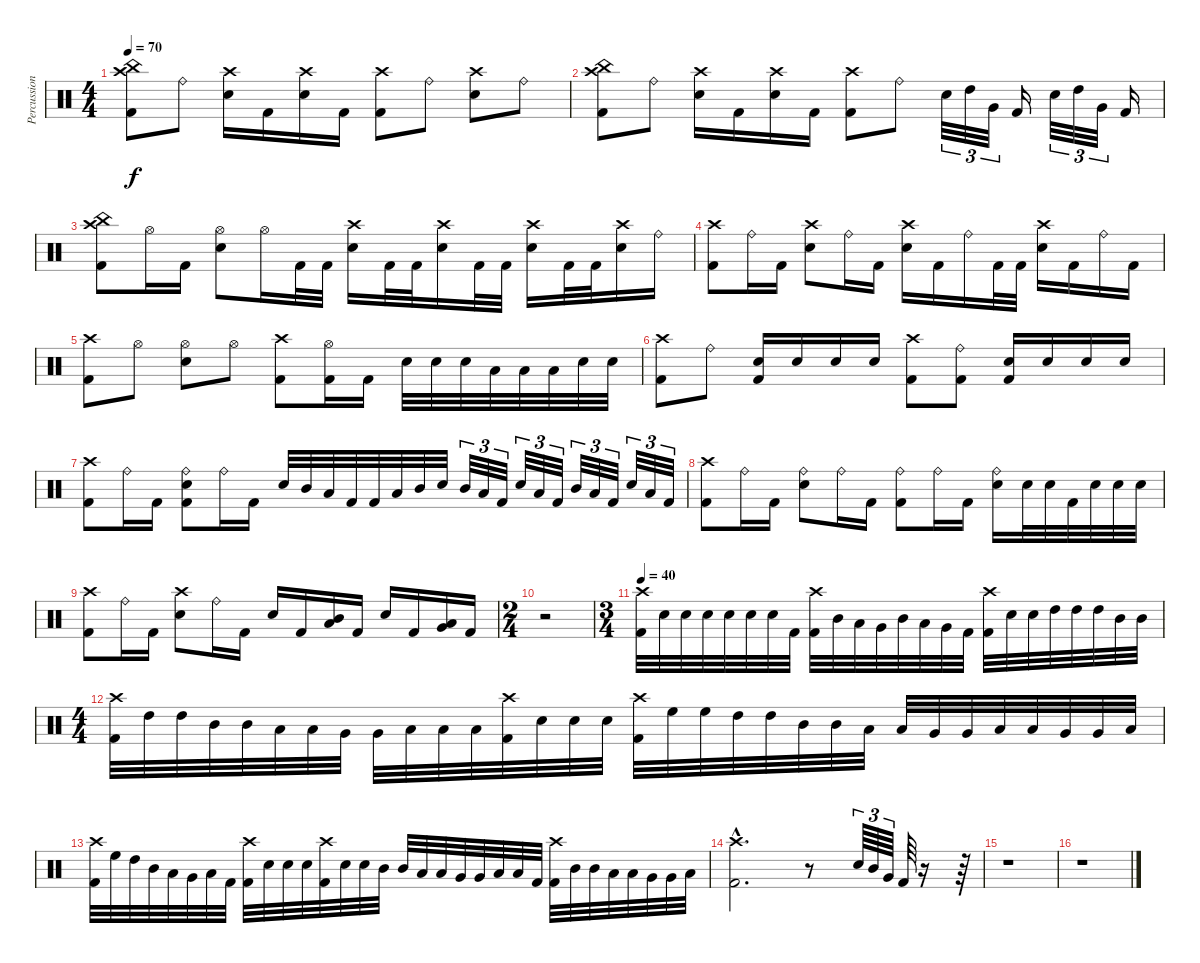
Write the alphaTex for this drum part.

\track ("Percussion" "Percussion") {instrument percussion}
\staff {score}
\articulation defaults
\ts (4 4)
\tempo 70
\clef neutral
\ks c
("Crash high (hit)" "China (hit)" "Kick (hit) 2").8{dy f} "Ride (bell)".8 ("Crash high (hit)" "Snare (hit) 2").16 "Kick (hit) 2".16 ("Crash high (hit)" "Snare (hit) 2").16 "Kick (hit) 2".16 ("Crash high (hit)" "Kick (hit) 2").8 "Ride (bell)".8 ("Crash high (hit)" "Snare (hit) 2").8 "Ride (bell)".8 |
("Crash high (hit)" "China (hit)" "Kick (hit) 2").8 "Ride (bell)".8 ("Crash high (hit)" "Snare (hit) 2").16 "Kick (hit) 2".16 ("Crash high (hit)" "Snare (hit) 2").16 "Kick (hit) 2".16 ("Crash high (hit)" "Kick (hit) 2").8 "Ride (bell)".8 "Snare (hit) 2".32{tu (3 2)} "High Tom (hit)".32{tu (3 2)} "Very Low Tom (hit)".32{tu (3 2)} "Kick (hit) 2".16 "Snare (hit) 2".32{tu (3 2)} "High Tom (hit)".32{tu (3 2)} "Very Low Tom (hit)".32{tu (3 2)} "Kick (hit) 2".16 |
("Crash high (hit)" "China (hit)" "Kick (hit) 2").8 "Hi-Hat (open)".16 "Kick (hit) 2".16 ("Hi-Hat (open)" "Snare (hit) 2").8 "Hi-Hat (open)".16 "Kick (hit) 2".32 "Kick (hit) 2".32 ("Crash high (hit)" "Snare (hit) 2").16 "Kick (hit) 2".32 "Kick (hit) 2".32 ("Crash high (hit)" "Snare (hit) 2").16 "Kick (hit) 2".32 "Kick (hit) 2".32 ("Crash high (hit)" "Snare (hit) 2").16 "Kick (hit) 2".32 "Kick (hit) 2".32 ("Crash high (hit)" "Snare (hit) 2").16 "Ride (bell)".16 |
("Crash high (hit)" "Kick (hit) 2").8 "Ride (bell)".16 "Kick (hit) 2".16 ("Crash high (hit)" "Snare (hit) 2").8 "Ride (bell)".16 "Kick (hit) 2".16 ("Crash high (hit)" "Snare (hit) 2").16 "Kick (hit) 2".16 "Ride (bell)".16 "Kick (hit) 2".32 "Kick (hit) 2".32 ("Crash high (hit)" "Snare (hit) 2").16 "Kick (hit) 2".16 "Ride (bell)".16 "Kick (hit) 2".16 |
("Crash high (hit)" "Kick (hit) 2").8 "Hi-Hat (open)".8 ("Hi-Hat (open)" "Snare (hit) 2").8 "Hi-Hat (open)".8 ("Crash high (hit)" "Kick (hit) 2").8 ("Hi-Hat (open)" "Kick (hit) 2").16 "Kick (hit) 2".16 "Snare (hit) 2".32 "Snare (hit) 2".32 "Snare (hit) 2".32 "Low Floor Tom (hit)".32 "Low Floor Tom (hit)".32 "Low Floor Tom (hit)".32 "Snare (hit) 2".32 "Snare (hit) 2".32 |
("Crash high (hit)" "Kick (hit) 2").8 "Ride (bell)".8 ("Snare (hit) 2" "Kick (hit) 2").16 "Snare (hit) 2".16 "Snare (hit) 2".16 "Snare (hit) 2".16 ("Crash high (hit)" "Kick (hit) 2").8 ("Ride (bell)" "Kick (hit) 2").8 ("Snare (hit) 2" "Kick (hit) 2").16 "Snare (hit) 2".16 "Snare (hit) 2".16 "Snare (hit) 2".16 |
("Crash high (hit)" "Kick (hit) 2").8 "Ride (bell)".16 "Kick (hit) 2".16 ("Ride (bell)" "Snare (hit) 2" "Kick (hit) 2").8 "Ride (bell)".16 "Kick (hit) 2".16 "Snare (hit) 2".32 "Mid Tom (hit)".32 "Low Tom (hit)".32 "Kick (hit) 2".32 "Kick (hit) 2".32 "Low Tom (hit)".32 "Mid Tom (hit)".32 "Snare (hit) 2".32 "Mid Tom (hit)".32{tu (3 2)} "Low Tom (hit)".32{tu (3 2)} "Kick (hit) 2".32{tu (3 2)} "Snare (hit) 2".32{tu (3 2)} "Low Tom (hit)".32{tu (3 2)} "Kick (hit) 2".32{tu (3 2)} "Mid Tom (hit)".32{tu (3 2)} "Low Tom (hit)".32{tu (3 2)} "Kick (hit) 2".32{tu (3 2)} "Snare (hit) 2".32{tu (3 2)} "Low Tom (hit)".32{tu (3 2)} "Kick (hit) 2".32{tu (3 2)} |
("Crash high (hit)" "Kick (hit) 2").8 "Ride (bell)".16 "Kick (hit) 2".16 ("Ride (bell)" "Snare (hit) 2").8 "Ride (bell)".16 "Kick (hit) 2".16 ("Ride (bell)" "Kick (hit) 2").8 "Ride (bell)".16 "Kick (hit) 2".16 ("Ride (bell)" "Snare (hit) 2").16 "Snare (hit) 2".32 "Snare (hit) 2".32 "Kick (hit) 2".32 "Snare (hit) 2".32 "Snare (hit) 2".32 "Snare (hit) 2".32 |
("Crash high (hit)" "Kick (hit) 2").8 "Ride (bell)".16 "Kick (hit) 2".16 ("Crash high (hit)" "Snare (hit) 2").8 "Ride (bell)".16 "Kick (hit) 2".16 "Snare (hit) 2".16 "Kick (hit) 2".16 ("Mid Tom (hit)" "Low Tom (hit)").16 "Kick (hit) 2".16 "Snare (hit) 2".16 "Kick (hit) 2".16 ("Very Low Tom (hit)" "Low Floor Tom (hit)").16 "Kick (hit) 2".16 |
\ts (2 4)
r.2 |
\ts (3 4)
\tempo 40
("Crash high (hit)" "Kick (hit) 2").32 "Snare (hit) 2".32 "Snare (hit) 2".32 "Snare (hit) 2".32 "Snare (hit) 2".32 "Snare (hit) 2".32 "Snare (hit) 2".32 "Kick (hit) 2".32 ("Crash high (hit)" "Kick (hit) 2").32 "Mid Tom (hit)".32 "Low Tom (hit)".32 "Very Low Tom (hit)".32 "Mid Tom (hit)".32 "Low Tom (hit)".32 "Very Low Tom (hit)".32 "Kick (hit) 2".32 ("Crash high (hit)" "Kick (hit) 2").32 "Snare (hit) 2".32 "Snare (hit) 2".32 "High Tom (hit)".32 "High Tom (hit)".32 "High Tom (hit)".32 "Mid Tom (hit)".32 "Mid Tom (hit)".32 |
\ts (4 4)
("Crash high (hit)" "Kick (hit) 2").32 "High Tom (hit)".32 "High Tom (hit)".32 "Mid Tom (hit)".32 "Mid Tom (hit)".32 "Low Tom (hit)".32 "Low Tom (hit)".32 "Very Low Tom (hit)".32 "Very Low Tom (hit)".32 "Low Floor Tom (hit)".32 "Low Floor Tom (hit)".32 "Low Floor Tom (hit)".32 ("Crash high (hit)" "Kick (hit) 2").32 "Snare (hit) 2".32 "Snare (hit) 2".32 "Snare (hit) 2".32 ("Crash high (hit)" "Kick (hit) 2").32 "High Floor Tom (hit)".32 "High Floor Tom (hit)".32 "High Tom (hit)".32 "High Tom (hit)".32 "Mid Tom (hit)".32 "Mid Tom (hit)".32 "Low Tom (hit)".32 "Low Tom (hit)".32 "Very Low Tom (hit)".32 "Very Low Tom (hit)".32 "Low Floor Tom (hit)".32 "Low Floor Tom (hit)".32 "Very Low Tom (hit)".32 "Very Low Tom (hit)".32 "Low Tom (hit)".32 |
("Crash high (hit)" "Kick (hit) 2").32 "High Floor Tom (hit)".32 "High Tom (hit)".32 "Mid Tom (hit)".32 "Low Tom (hit)".32 "Very Low Tom (hit)".32 "Low Floor Tom (hit)".32 "Kick (hit) 2".32 ("Crash high (hit)" "Kick (hit) 2").32 "Snare (hit) 2".32 "Snare (hit) 2".32 "Snare (hit) 2".32 ("Crash high (hit)" "Kick (hit) 2").32 "Snare (hit) 2".32 "Snare (hit) 2".32 "Mid Tom (hit)".32 "Mid Tom (hit)".32 "Low Tom (hit)".32 "Low Tom (hit)".32 "Very Low Tom (hit)".32 "Very Low Tom (hit)".32 "Low Floor Tom (hit)".32 "Low Floor Tom (hit)".32 "Kick (hit) 2".32 ("Crash high (hit)" "Kick (hit) 2").32 "Mid Tom (hit)".32 "Mid Tom (hit)".32 "Low Tom (hit)".32 "Low Tom (hit)".32 "Very Low Tom (hit)".32 "Very Low Tom (hit)".32 "Low Floor Tom (hit)".32 |
("Crash high (hit)"{hac} "Kick (hit) 2"{hac}).2{d} r.8 "Snare (hit) 2".64{tu (3 2)} "Mid Tom (hit)".64{tu (3 2)} "Very Low Tom (hit)".64{tu (3 2)} "Kick (hit) 2".64 r.16 r.64 |
r.1 |
r.1
